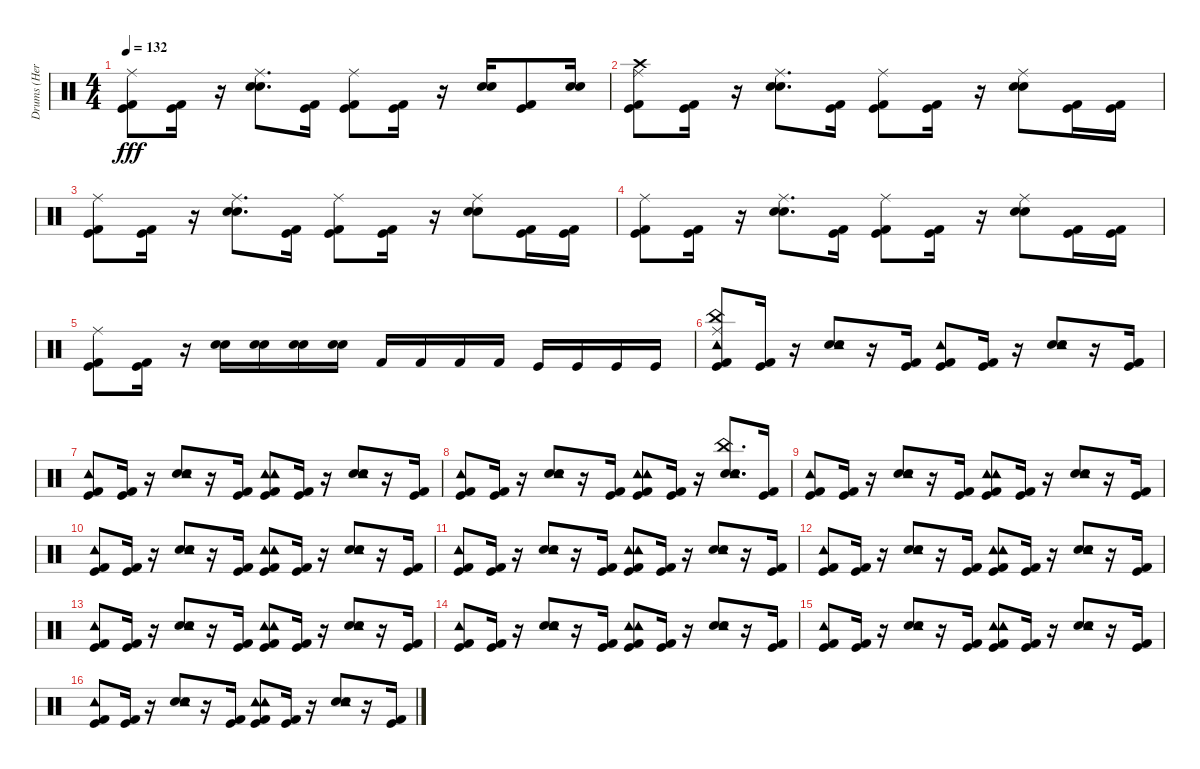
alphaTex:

\track ("Drums (Herb Alexander)" "Drums (Her") {instrument percussion}
\staff {score}
\articulation defaults
\ts (4 4)
\tempo 132
\clef neutral
\ks c
("Kick (hit)" "Kick (hit) 2" "Ride (middle)").8{dy fff} ("Kick (hit)" "Kick (hit) 2").16 r.16 ("Snare (hit) 2" "Hand Clap (hit)" "Ride (middle)").8{d} ("Kick (hit)" "Kick (hit) 2").16 ("Kick (hit)" "Kick (hit) 2" "Ride (middle)").8 ("Kick (hit)" "Kick (hit) 2").16 r.16 ("Hand Clap (hit)" "Snare (hit) 2").16 ("Kick (hit) 2" "Kick (hit)").8 ("Hand Clap (hit)" "Snare (hit) 2").16 |
("Kick (hit)" "Kick (hit) 2" "Ride (middle)" "Crash high (hit)").8 ("Kick (hit)" "Kick (hit) 2").16 r.16 ("Snare (hit) 2" "Hand Clap (hit)" "Ride (middle)").8{d} ("Kick (hit)" "Kick (hit) 2").16 ("Kick (hit)" "Kick (hit) 2" "Ride (middle)").8 ("Kick (hit)" "Kick (hit) 2").16 r.16 ("Snare (hit) 2" "Hand Clap (hit)" "Ride (middle)").8 ("Kick (hit)" "Kick (hit) 2").16 ("Kick (hit)" "Kick (hit) 2").16 |
("Kick (hit)" "Kick (hit) 2" "Ride (middle)").8 ("Kick (hit)" "Kick (hit) 2").16 r.16 ("Snare (hit) 2" "Hand Clap (hit)" "Ride (middle)").8{d} ("Kick (hit)" "Kick (hit) 2").16 ("Kick (hit)" "Kick (hit) 2" "Ride (middle)").8 ("Kick (hit)" "Kick (hit) 2").16 r.16 ("Snare (hit) 2" "Hand Clap (hit)" "Ride (middle)").8 ("Kick (hit)" "Kick (hit) 2").16 ("Kick (hit)" "Kick (hit) 2").16 |
("Kick (hit)" "Kick (hit) 2" "Ride (middle)").8 ("Kick (hit)" "Kick (hit) 2").16 r.16 ("Snare (hit) 2" "Hand Clap (hit)" "Ride (middle)").8{d} ("Kick (hit)" "Kick (hit) 2").16 ("Kick (hit)" "Kick (hit) 2" "Ride (middle)").8 ("Kick (hit)" "Kick (hit) 2").16 r.16 ("Snare (hit) 2" "Hand Clap (hit)" "Ride (middle)").8 ("Kick (hit)" "Kick (hit) 2").16 ("Kick (hit)" "Kick (hit) 2").16 |
("Kick (hit)" "Kick (hit) 2" "Ride (middle)").8 ("Kick (hit)" "Kick (hit) 2").16 r.16 ("Electric Snare (hit)" "Snare (hit) 2").16 ("Electric Snare (hit)" "Snare (hit) 2").16 ("Electric Snare (hit)" "Snare (hit) 2").16 ("Electric Snare (hit)" "Snare (hit) 2").16 "Kick (hit) 2".16 "Kick (hit) 2".16 "Kick (hit) 2".16 "Kick (hit) 2".16 "Kick (hit)".16 "Kick (hit)".16 "Kick (hit)".16 "Kick (hit)".16 |
("Ride (middle)" "China (hit)" "Tambourine (hit)" "Kick (hit)" "Kick (hit) 2").8 ("Kick (hit)" "Kick (hit) 2").16 r.16 ("Snare (hit) 2" "Hand Clap (hit)" "Tambourine (hit)").8 r.16 ("Kick (hit)" "Kick (hit) 2").16 ("Tambourine (hit)" "Kick (hit)" "Kick (hit) 2").8 ("Kick (hit)" "Kick (hit) 2").16 r.16 ("Snare (hit) 2" "Hand Clap (hit)" "Tambourine (hit)").8 r.16 ("Kick (hit)" "Kick (hit) 2").16 |
("Tambourine (hit)" "Kick (hit)" "Kick (hit) 2").8 ("Kick (hit)" "Kick (hit) 2").16 r.16 ("Snare (hit) 2" "Hand Clap (hit)" "Tambourine (hit)").8 r.16 ("Kick (hit)" "Kick (hit) 2").16 ("Tambourine (hit)" "Kick (hit)" "Kick (hit) 2" "Tambourine (hit)").8 ("Kick (hit)" "Kick (hit) 2").16 r.16 ("Snare (hit) 2" "Hand Clap (hit)" "Tambourine (hit)").8 r.16 ("Kick (hit)" "Kick (hit) 2").16 |
("Tambourine (hit)" "Kick (hit)" "Kick (hit) 2").8 ("Kick (hit)" "Kick (hit) 2").16 r.16 ("Snare (hit) 2" "Hand Clap (hit)" "Tambourine (hit)").8 r.16 ("Kick (hit)" "Kick (hit) 2").16 ("Tambourine (hit)" "Kick (hit)" "Kick (hit) 2" "Tambourine (hit)").8 ("Kick (hit)" "Kick (hit) 2").16 r.16 ("Snare (hit) 2" "Hand Clap (hit)" "Tambourine (hit)" "China (hit)").8{d} ("Kick (hit)" "Kick (hit) 2").16 |
("Tambourine (hit)" "Kick (hit)" "Kick (hit) 2").8 ("Kick (hit)" "Kick (hit) 2").16 r.16 ("Snare (hit) 2" "Hand Clap (hit)" "Tambourine (hit)").8 r.16 ("Kick (hit)" "Kick (hit) 2").16 ("Tambourine (hit)" "Kick (hit)" "Kick (hit) 2" "Tambourine (hit)").8 ("Kick (hit)" "Kick (hit) 2").16 r.16 ("Snare (hit) 2" "Hand Clap (hit)" "Tambourine (hit)").8 r.16 ("Kick (hit)" "Kick (hit) 2").16 |
("Tambourine (hit)" "Kick (hit)" "Kick (hit) 2").8 ("Kick (hit)" "Kick (hit) 2").16 r.16 ("Snare (hit) 2" "Hand Clap (hit)" "Tambourine (hit)").8 r.16 ("Kick (hit)" "Kick (hit) 2").16 ("Tambourine (hit)" "Kick (hit)" "Kick (hit) 2" "Tambourine (hit)").8 ("Kick (hit)" "Kick (hit) 2").16 r.16 ("Snare (hit) 2" "Hand Clap (hit)" "Tambourine (hit)").8 r.16 ("Kick (hit)" "Kick (hit) 2").16 |
("Tambourine (hit)" "Kick (hit)" "Kick (hit) 2").8 ("Kick (hit)" "Kick (hit) 2").16 r.16 ("Snare (hit) 2" "Hand Clap (hit)" "Tambourine (hit)").8 r.16 ("Kick (hit)" "Kick (hit) 2").16 ("Tambourine (hit)" "Kick (hit)" "Kick (hit) 2" "Tambourine (hit)").8 ("Kick (hit)" "Kick (hit) 2").16 r.16 ("Snare (hit) 2" "Hand Clap (hit)" "Tambourine (hit)").8 r.16 ("Kick (hit)" "Kick (hit) 2").16 |
("Tambourine (hit)" "Kick (hit)" "Kick (hit) 2").8 ("Kick (hit)" "Kick (hit) 2").16 r.16 ("Snare (hit) 2" "Hand Clap (hit)" "Tambourine (hit)").8 r.16 ("Kick (hit)" "Kick (hit) 2").16 ("Tambourine (hit)" "Kick (hit)" "Kick (hit) 2" "Tambourine (hit)").8 ("Kick (hit)" "Kick (hit) 2").16 r.16 ("Snare (hit) 2" "Hand Clap (hit)" "Tambourine (hit)").8 r.16 ("Kick (hit)" "Kick (hit) 2").16 |
("Tambourine (hit)" "Kick (hit)" "Kick (hit) 2").8 ("Kick (hit)" "Kick (hit) 2").16 r.16 ("Snare (hit) 2" "Hand Clap (hit)" "Tambourine (hit)").8 r.16 ("Kick (hit)" "Kick (hit) 2").16 ("Tambourine (hit)" "Kick (hit)" "Kick (hit) 2" "Tambourine (hit)").8 ("Kick (hit)" "Kick (hit) 2").16 r.16 ("Snare (hit) 2" "Hand Clap (hit)" "Tambourine (hit)").8 r.16 ("Kick (hit)" "Kick (hit) 2").16 |
("Tambourine (hit)" "Kick (hit)" "Kick (hit) 2").8 ("Kick (hit)" "Kick (hit) 2").16 r.16 ("Snare (hit) 2" "Hand Clap (hit)" "Tambourine (hit)").8 r.16 ("Kick (hit)" "Kick (hit) 2").16 ("Tambourine (hit)" "Kick (hit)" "Kick (hit) 2" "Tambourine (hit)").8 ("Kick (hit)" "Kick (hit) 2").16 r.16 ("Snare (hit) 2" "Hand Clap (hit)" "Tambourine (hit)").8 r.16 ("Kick (hit)" "Kick (hit) 2").16 |
("Tambourine (hit)" "Kick (hit)" "Kick (hit) 2").8 ("Kick (hit)" "Kick (hit) 2").16 r.16 ("Snare (hit) 2" "Hand Clap (hit)" "Tambourine (hit)").8 r.16 ("Kick (hit)" "Kick (hit) 2").16 ("Tambourine (hit)" "Kick (hit)" "Kick (hit) 2" "Tambourine (hit)").8 ("Kick (hit)" "Kick (hit) 2").16 r.16 ("Snare (hit) 2" "Hand Clap (hit)" "Tambourine (hit)").8 r.16 ("Kick (hit)" "Kick (hit) 2").16 |
("Tambourine (hit)" "Kick (hit)" "Kick (hit) 2").8 ("Kick (hit)" "Kick (hit) 2").16 r.16 ("Snare (hit) 2" "Hand Clap (hit)" "Tambourine (hit)").8 r.16 ("Kick (hit)" "Kick (hit) 2").16 ("Tambourine (hit)" "Kick (hit)" "Kick (hit) 2" "Tambourine (hit)").8 ("Kick (hit)" "Kick (hit) 2").16 r.16 ("Snare (hit) 2" "Hand Clap (hit)" "Tambourine (hit)").8 r.16 ("Kick (hit)" "Kick (hit) 2").16
